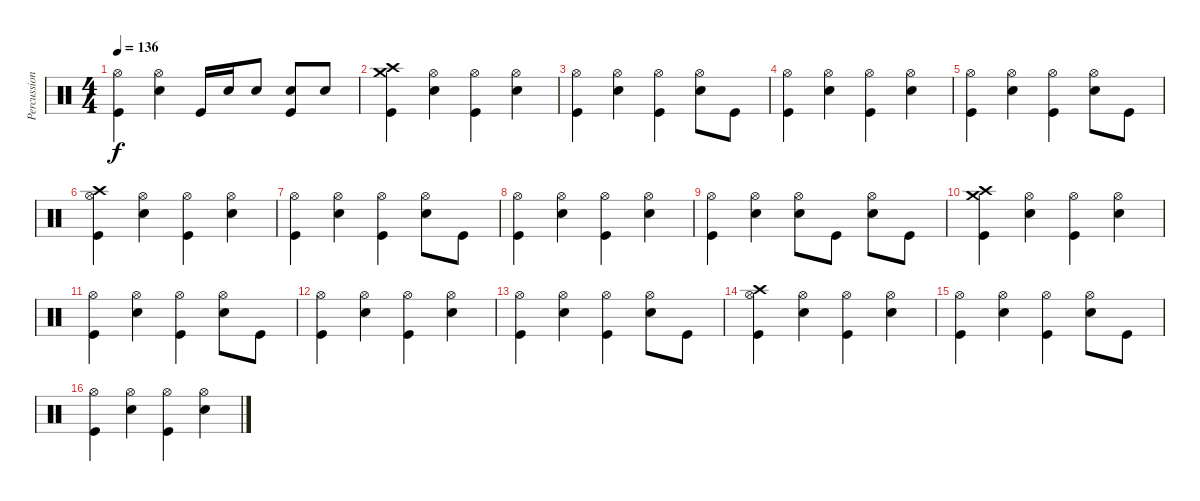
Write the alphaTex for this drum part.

\track ("Percussion" "Percussion") {instrument percussion}
\staff {score}
\articulation defaults
\ts (4 4)
\tempo 136
\clef neutral
\ks c
("Hi-Hat (open)" "Kick (hit)").4{dy f} ("Hi-Hat (open)" "Electric Snare (hit)").4 "Kick (hit)".16 "Electric Snare (hit)".16 "Electric Snare (hit)".8 ("Electric Snare (hit)" "Kick (hit)").8 "Electric Snare (hit)".8 |
("Crash high (hit)" "Crash medium (hit)" "Kick (hit)").4 ("Hi-Hat (open)" "Electric Snare (hit)").4 ("Hi-Hat (open)" "Kick (hit)").4 ("Hi-Hat (open)" "Electric Snare (hit)").4 |
("Hi-Hat (open)" "Kick (hit)").4 ("Hi-Hat (open)" "Electric Snare (hit)").4 ("Hi-Hat (open)" "Kick (hit)").4 ("Hi-Hat (open)" "Electric Snare (hit)").8 "Kick (hit)".8 |
("Hi-Hat (open)" "Kick (hit)").4 ("Hi-Hat (open)" "Electric Snare (hit)").4 ("Hi-Hat (open)" "Kick (hit)").4 ("Hi-Hat (open)" "Electric Snare (hit)").4 |
("Hi-Hat (open)" "Kick (hit)").4 ("Hi-Hat (open)" "Electric Snare (hit)").4 ("Hi-Hat (open)" "Kick (hit)").4 ("Hi-Hat (open)" "Electric Snare (hit)").8 "Kick (hit)".8 |
("Crash high (hit)" "Hi-Hat (open)" "Kick (hit)").4 ("Hi-Hat (open)" "Electric Snare (hit)").4 ("Hi-Hat (open)" "Kick (hit)").4 ("Hi-Hat (open)" "Electric Snare (hit)").4 |
("Hi-Hat (open)" "Kick (hit)").4 ("Hi-Hat (open)" "Electric Snare (hit)").4 ("Hi-Hat (open)" "Kick (hit)").4 ("Hi-Hat (open)" "Electric Snare (hit)").8 "Kick (hit)".8 |
("Hi-Hat (open)" "Kick (hit)").4 ("Hi-Hat (open)" "Electric Snare (hit)").4 ("Hi-Hat (open)" "Kick (hit)").4 ("Hi-Hat (open)" "Electric Snare (hit)").4 |
("Hi-Hat (open)" "Kick (hit)").4 ("Hi-Hat (open)" "Electric Snare (hit)").4 ("Hi-Hat (open)" "Electric Snare (hit)").8 "Kick (hit)".8 ("Hi-Hat (open)" "Electric Snare (hit)").8 "Kick (hit)".8 |
("Crash high (hit)" "Crash medium (hit)" "Kick (hit)").4 ("Hi-Hat (open)" "Electric Snare (hit)").4 ("Hi-Hat (open)" "Kick (hit)").4 ("Hi-Hat (open)" "Electric Snare (hit)").4 |
("Hi-Hat (open)" "Kick (hit)").4 ("Hi-Hat (open)" "Electric Snare (hit)").4 ("Hi-Hat (open)" "Kick (hit)").4 ("Hi-Hat (open)" "Electric Snare (hit)").8 "Kick (hit)".8 |
("Hi-Hat (open)" "Kick (hit)").4 ("Hi-Hat (open)" "Electric Snare (hit)").4 ("Hi-Hat (open)" "Kick (hit)").4 ("Hi-Hat (open)" "Electric Snare (hit)").4 |
("Hi-Hat (open)" "Kick (hit)").4 ("Hi-Hat (open)" "Electric Snare (hit)").4 ("Hi-Hat (open)" "Kick (hit)").4 ("Hi-Hat (open)" "Electric Snare (hit)").8 "Kick (hit)".8 |
("Crash high (hit)" "Hi-Hat (open)" "Kick (hit)").4 ("Hi-Hat (open)" "Electric Snare (hit)").4 ("Hi-Hat (open)" "Kick (hit)").4 ("Hi-Hat (open)" "Electric Snare (hit)").4 |
("Hi-Hat (open)" "Kick (hit)").4 ("Hi-Hat (open)" "Electric Snare (hit)").4 ("Hi-Hat (open)" "Kick (hit)").4 ("Hi-Hat (open)" "Electric Snare (hit)").8 "Kick (hit)".8 |
("Hi-Hat (open)" "Kick (hit)").4 ("Hi-Hat (open)" "Electric Snare (hit)").4 ("Hi-Hat (open)" "Kick (hit)").4 ("Hi-Hat (open)" "Electric Snare (hit)").4
